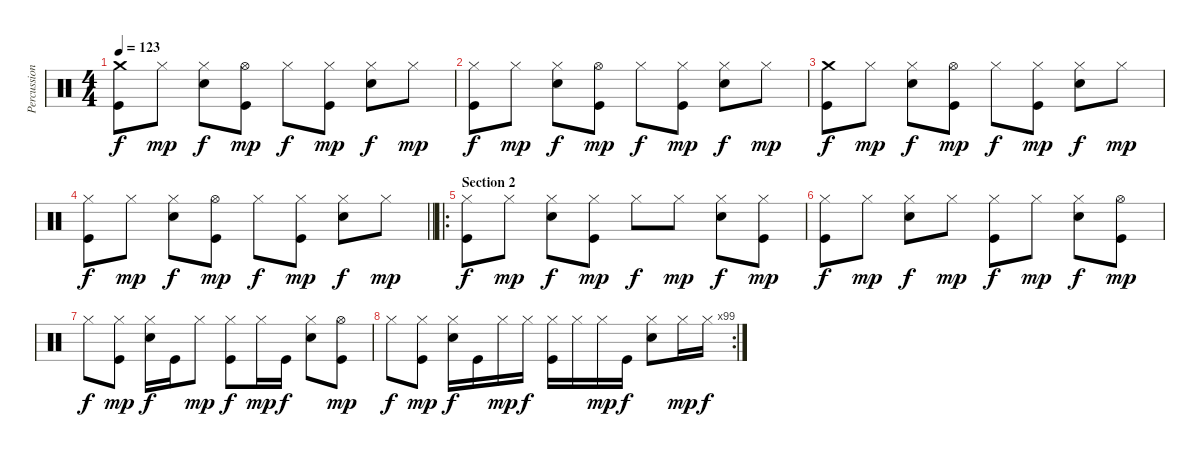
\track ("Percussion" "Percussion") {instrument percussion}
\staff {score}
\articulation defaults
\ts (4 4)
\tempo 123
\clef neutral
\ks c
("Crash medium (hit)" "Kick (hit)").8{dy f} "Hi-Hat (closed)".8{dy mp} ("Hi-Hat (closed)" "Electric Snare (hit)").8{dy f} ("Hi-Hat (open)" "Kick (hit)").8{dy mp} "Hi-Hat (closed)".8{dy f} ("Hi-Hat (closed)" "Kick (hit)").8{dy mp} ("Hi-Hat (closed)" "Electric Snare (hit)").8{dy f} "Hi-Hat (closed)".8{dy mp} |
("Hi-Hat (closed)" "Kick (hit)").8{dy f} "Hi-Hat (closed)".8{dy mp} ("Hi-Hat (closed)" "Electric Snare (hit)").8{dy f} ("Hi-Hat (open)" "Kick (hit)").8{dy mp} "Hi-Hat (closed)".8{dy f} ("Hi-Hat (closed)" "Kick (hit)").8{dy mp} ("Hi-Hat (closed)" "Electric Snare (hit)").8{dy f} "Hi-Hat (closed)".8{dy mp} |
("Crash medium (hit)" "Kick (hit)").8{dy f} "Hi-Hat (closed)".8{dy mp} ("Hi-Hat (closed)" "Electric Snare (hit)").8{dy f} ("Hi-Hat (open)" "Kick (hit)").8{dy mp} "Hi-Hat (closed)".8{dy f} ("Hi-Hat (closed)" "Kick (hit)").8{dy mp} ("Hi-Hat (closed)" "Electric Snare (hit)").8{dy f} "Hi-Hat (closed)".8{dy mp} |
\barLineRight lightlight
("Hi-Hat (closed)" "Kick (hit)").8{dy f} "Hi-Hat (closed)".8{dy mp} ("Hi-Hat (closed)" "Electric Snare (hit)").8{dy f} ("Hi-Hat (open)" "Kick (hit)").8{dy mp} "Hi-Hat (closed)".8{dy f} ("Hi-Hat (closed)" "Kick (hit)").8{dy mp} ("Hi-Hat (closed)" "Electric Snare (hit)").8{dy f} "Hi-Hat (closed)".8{dy mp} |
\ro
\section ("" "Section 2")
("Hi-Hat (closed)" "Kick (hit)").8{dy f} "Hi-Hat (closed)".8{dy mp} ("Hi-Hat (closed)" "Electric Snare (hit)").8{dy f} ("Hi-Hat (closed)" "Kick (hit)").8{dy mp} "Hi-Hat (closed)".8{dy f} "Hi-Hat (closed)".8{dy mp} ("Hi-Hat (closed)" "Electric Snare (hit)").8{dy f} ("Hi-Hat (closed)" "Kick (hit)").8{dy mp} |
("Hi-Hat (closed)" "Kick (hit)").8{dy f} "Hi-Hat (closed)".8{dy mp} ("Hi-Hat (closed)" "Electric Snare (hit)").8{dy f} "Hi-Hat (closed)".8{dy mp} ("Hi-Hat (closed)" "Kick (hit)").8{dy f} "Hi-Hat (closed)".8{dy mp} ("Hi-Hat (closed)" "Electric Snare (hit)").8{dy f} ("Hi-Hat (open)" "Kick (hit)").8{dy mp} |
"Hi-Hat (closed)".8{dy f} ("Hi-Hat (closed)" "Kick (hit)").8{dy mp} ("Hi-Hat (closed)" "Electric Snare (hit)").16{dy f} "Kick (hit)".16 "Hi-Hat (closed)".8{dy mp} ("Hi-Hat (closed)" "Kick (hit)").8{dy f} "Hi-Hat (closed)".16{dy mp} "Kick (hit)".16{dy f} ("Hi-Hat (closed)" "Electric Snare (hit)").8 ("Hi-Hat (open)" "Kick (hit)").8{dy mp} |
\rc 99 "Hi-Hat (closed)".8{dy f}
("Hi-Hat (closed)" "Kick (hit)").8{dy mp} ("Hi-Hat (closed)" "Electric Snare (hit)").16{dy f} "Kick (hit)".16 "Hi-Hat (closed)".16{dy mp} "Hi-Hat (closed)".16{dy f} ("Hi-Hat (closed)" "Kick (hit)").16 "Hi-Hat (closed)".16 "Hi-Hat (closed)".16{dy mp} "Kick (hit)".16{dy f} ("Hi-Hat (closed)" "Electric Snare (hit)").8 "Hi-Hat (closed)".16{dy mp} "Hi-Hat (closed)".16{dy f}
